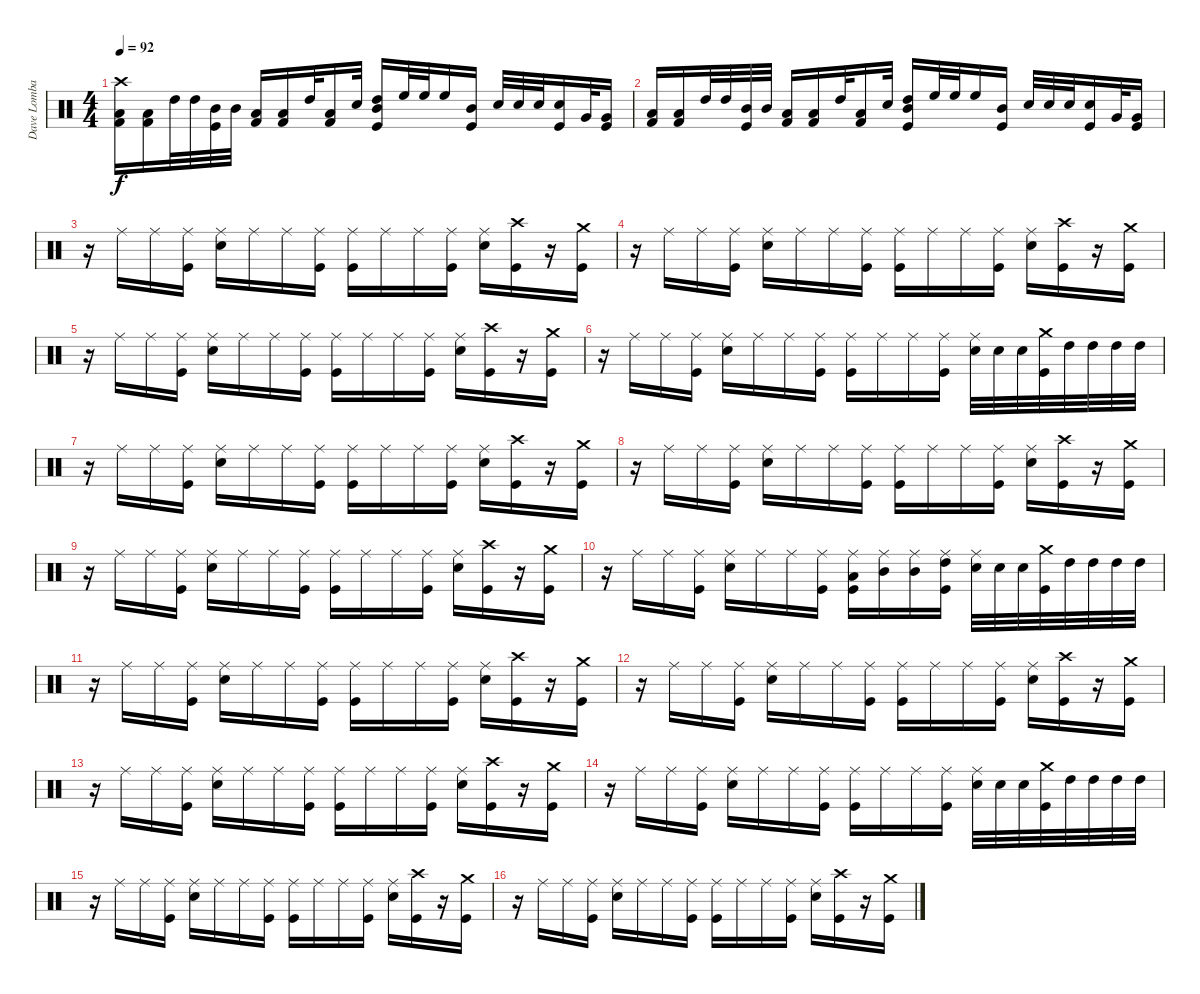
\track ("Dave Lombardo" "Dave Lomba") {instrument percussion}
\staff {score}
\articulation defaults
\ts (4 4)
\tempo 92
\clef neutral
\ks c
("Low Tom (hit)" "Kick (hit) 2" "Crash high (hit)").16{dy f} ("Low Tom (hit)" "Kick (hit) 2").16 "High Tom (hit)".32 "High Tom (hit)".32 ("Kick (hit)" "Mid Tom (hit)").32 "Mid Tom (hit)".32 ("Low Tom (hit)" "Kick (hit) 2").16 ("Low Tom (hit)" "Kick (hit) 2").16 "High Tom (hit)".32 ("Low Tom (hit)" "Kick (hit) 2").16 "Snare (hit) 2".32 ("Kick (hit)" "Mid Tom (hit)" "High Tom (hit)").16 "High Floor Tom (hit)".32 "High Floor Tom (hit)".32 "High Floor Tom (hit)".16 ("Kick (hit)" "Mid Tom (hit)").16 "Snare (hit) 2".32 "Snare (hit) 2".32 "Snare (hit) 2".32 ("Kick (hit)" "Snare (hit) 2").16 "Very Low Tom (hit)".32 ("Kick (hit)" "Very Low Tom (hit)").16 |
("Low Tom (hit)" "Kick (hit) 2").16 ("Low Tom (hit)" "Kick (hit) 2").16 "High Tom (hit)".32 "High Tom (hit)".32 ("Kick (hit)" "Mid Tom (hit)").32 "Mid Tom (hit)".32 ("Low Tom (hit)" "Kick (hit) 2").16 ("Low Tom (hit)" "Kick (hit) 2").16 "High Tom (hit)".32 ("Low Tom (hit)" "Kick (hit) 2").16 "Snare (hit) 2".32 ("Kick (hit)" "Mid Tom (hit)" "High Tom (hit)").16 "High Floor Tom (hit)".32 "High Floor Tom (hit)".32 "High Floor Tom (hit)".16 ("Kick (hit)" "Mid Tom (hit)").16 "Snare (hit) 2".32 "Snare (hit) 2".32 "Snare (hit) 2".32 ("Kick (hit)" "Snare (hit) 2").16 "Very Low Tom (hit)".32 ("Kick (hit)" "Very Low Tom (hit)").16 |
r.16 "Ride (middle)".16 "Ride (middle)".16 ("Ride (middle)" "Kick (hit)").16 ("Ride (middle)" "Snare (hit) 2").16 "Ride (middle)".16 "Ride (middle)".16 ("Ride (middle)" "Kick (hit)").16 ("Ride (middle)" "Kick (hit)").16 "Ride (middle)".16 "Ride (middle)".16 ("Ride (middle)" "Kick (hit)").16 ("Ride (middle)" "Snare (hit) 2").16 ("Crash high (hit)" "Kick (hit)").16 r.16 ("Kick (hit)" "Crash medium (hit)").16 |
r.16 "Ride (middle)".16 "Ride (middle)".16 ("Ride (middle)" "Kick (hit)").16 ("Ride (middle)" "Snare (hit) 2").16 "Ride (middle)".16 "Ride (middle)".16 ("Ride (middle)" "Kick (hit)").16 ("Ride (middle)" "Kick (hit)").16 "Ride (middle)".16 "Ride (middle)".16 ("Ride (middle)" "Kick (hit)").16 ("Ride (middle)" "Snare (hit) 2").16 ("Crash high (hit)" "Kick (hit)").16 r.16 ("Kick (hit)" "Crash medium (hit)").16 |
r.16 "Ride (middle)".16 "Ride (middle)".16 ("Ride (middle)" "Kick (hit)").16 ("Ride (middle)" "Snare (hit) 2").16 "Ride (middle)".16 "Ride (middle)".16 ("Ride (middle)" "Kick (hit)").16 ("Ride (middle)" "Kick (hit)").16 "Ride (middle)".16 "Ride (middle)".16 ("Ride (middle)" "Kick (hit)").16 ("Ride (middle)" "Snare (hit) 2").16 ("Crash high (hit)" "Kick (hit)").16 r.16 ("Kick (hit)" "Crash medium (hit)").16 |
r.16 "Ride (middle)".16 "Ride (middle)".16 ("Ride (middle)" "Kick (hit)").16 ("Ride (middle)" "Snare (hit) 2").16 "Ride (middle)".16 "Ride (middle)".16 ("Ride (middle)" "Kick (hit)").16 ("Ride (middle)" "Kick (hit)").16 "Ride (middle)".16 "Ride (middle)".16 ("Ride (middle)" "Kick (hit)").16 ("Ride (middle)" "Snare (hit) 2").32 "Snare (hit) 2".32 "Snare (hit) 2".32 ("Crash medium (hit)" "Kick (hit)").32 "High Tom (hit)".32 "High Tom (hit)".32 "High Tom (hit)".32 "High Tom (hit)".32 |
r.16 "Ride (middle)".16 "Ride (middle)".16 ("Ride (middle)" "Kick (hit)").16 ("Ride (middle)" "Snare (hit) 2").16 "Ride (middle)".16 "Ride (middle)".16 ("Ride (middle)" "Kick (hit)").16 ("Ride (middle)" "Kick (hit)").16 "Ride (middle)".16 "Ride (middle)".16 ("Ride (middle)" "Kick (hit)").16 ("Ride (middle)" "Snare (hit) 2").16 ("Crash high (hit)" "Kick (hit)").16 r.16 ("Kick (hit)" "Crash medium (hit)").16 |
r.16 "Ride (middle)".16 "Ride (middle)".16 ("Ride (middle)" "Kick (hit)").16 ("Ride (middle)" "Snare (hit) 2").16 "Ride (middle)".16 "Ride (middle)".16 ("Ride (middle)" "Kick (hit)").16 ("Ride (middle)" "Kick (hit)").16 "Ride (middle)".16 "Ride (middle)".16 ("Ride (middle)" "Kick (hit)").16 ("Ride (middle)" "Snare (hit) 2").16 ("Crash high (hit)" "Kick (hit)").16 r.16 ("Kick (hit)" "Crash medium (hit)").16 |
r.16 "Ride (middle)".16 "Ride (middle)".16 ("Ride (middle)" "Kick (hit)").16 ("Ride (middle)" "Snare (hit) 2").16 "Ride (middle)".16 "Ride (middle)".16 ("Ride (middle)" "Kick (hit)").16 ("Ride (middle)" "Kick (hit)").16 "Ride (middle)".16 "Ride (middle)".16 ("Ride (middle)" "Kick (hit)").16 ("Ride (middle)" "Snare (hit) 2").16 ("Crash high (hit)" "Kick (hit)").16 r.16 ("Kick (hit)" "Crash medium (hit)").16 |
r.16 "Ride (middle)".16 "Ride (middle)".16 ("Ride (middle)" "Kick (hit)").16 ("Ride (middle)" "Snare (hit) 2").16 "Ride (middle)".16 "Ride (middle)".16 ("Ride (middle)" "Kick (hit)").16 ("Ride (middle)" "Kick (hit)" "Low Tom (hit)").16 ("Ride (middle)" "Mid Tom (hit)").16 ("Ride (middle)" "Mid Tom (hit)").16 ("Ride (middle)" "Kick (hit)" "High Tom (hit)").16 ("Ride (middle)" "Snare (hit) 2").32 "Snare (hit) 2".32 "Snare (hit) 2".32 ("Crash medium (hit)" "Kick (hit)").32 "High Tom (hit)".32 "High Tom (hit)".32 "High Tom (hit)".32 "High Tom (hit)".32 |
r.16 "Ride (middle)".16 "Ride (middle)".16 ("Ride (middle)" "Kick (hit)").16 ("Ride (middle)" "Snare (hit) 2").16 "Ride (middle)".16 "Ride (middle)".16 ("Ride (middle)" "Kick (hit)").16 ("Ride (middle)" "Kick (hit)").16 "Ride (middle)".16 "Ride (middle)".16 ("Ride (middle)" "Kick (hit)").16 ("Ride (middle)" "Snare (hit) 2").16 ("Crash high (hit)" "Kick (hit)").16 r.16 ("Kick (hit)" "Crash medium (hit)").16 |
r.16 "Ride (middle)".16 "Ride (middle)".16 ("Ride (middle)" "Kick (hit)").16 ("Ride (middle)" "Snare (hit) 2").16 "Ride (middle)".16 "Ride (middle)".16 ("Ride (middle)" "Kick (hit)").16 ("Ride (middle)" "Kick (hit)").16 "Ride (middle)".16 "Ride (middle)".16 ("Ride (middle)" "Kick (hit)").16 ("Ride (middle)" "Snare (hit) 2").16 ("Crash high (hit)" "Kick (hit)").16 r.16 ("Kick (hit)" "Crash medium (hit)").16 |
r.16 "Ride (middle)".16 "Ride (middle)".16 ("Ride (middle)" "Kick (hit)").16 ("Ride (middle)" "Snare (hit) 2").16 "Ride (middle)".16 "Ride (middle)".16 ("Ride (middle)" "Kick (hit)").16 ("Ride (middle)" "Kick (hit)").16 "Ride (middle)".16 "Ride (middle)".16 ("Ride (middle)" "Kick (hit)").16 ("Ride (middle)" "Snare (hit) 2").16 ("Crash high (hit)" "Kick (hit)").16 r.16 ("Kick (hit)" "Crash medium (hit)").16 |
r.16 "Ride (middle)".16 "Ride (middle)".16 ("Ride (middle)" "Kick (hit)").16 ("Ride (middle)" "Snare (hit) 2").16 "Ride (middle)".16 "Ride (middle)".16 ("Ride (middle)" "Kick (hit)").16 ("Ride (middle)" "Kick (hit)").16 "Ride (middle)".16 "Ride (middle)".16 ("Ride (middle)" "Kick (hit)").16 ("Ride (middle)" "Snare (hit) 2").32 "Snare (hit) 2".32 "Snare (hit) 2".32 ("Crash medium (hit)" "Kick (hit)").32 "High Tom (hit)".32 "High Tom (hit)".32 "High Tom (hit)".32 "High Tom (hit)".32 |
r.16 "Ride (middle)".16 "Ride (middle)".16 ("Ride (middle)" "Kick (hit)").16 ("Ride (middle)" "Snare (hit) 2").16 "Ride (middle)".16 "Ride (middle)".16 ("Ride (middle)" "Kick (hit)").16 ("Ride (middle)" "Kick (hit)").16 "Ride (middle)".16 "Ride (middle)".16 ("Ride (middle)" "Kick (hit)").16 ("Ride (middle)" "Snare (hit) 2").16 ("Crash high (hit)" "Kick (hit)").16 r.16 ("Kick (hit)" "Crash medium (hit)").16 |
r.16 "Ride (middle)".16 "Ride (middle)".16 ("Ride (middle)" "Kick (hit)").16 ("Ride (middle)" "Snare (hit) 2").16 "Ride (middle)".16 "Ride (middle)".16 ("Ride (middle)" "Kick (hit)").16 ("Ride (middle)" "Kick (hit)").16 "Ride (middle)".16 "Ride (middle)".16 ("Ride (middle)" "Kick (hit)").16 ("Ride (middle)" "Snare (hit) 2").16 ("Crash high (hit)" "Kick (hit)").16 r.16 ("Kick (hit)" "Crash medium (hit)").16
